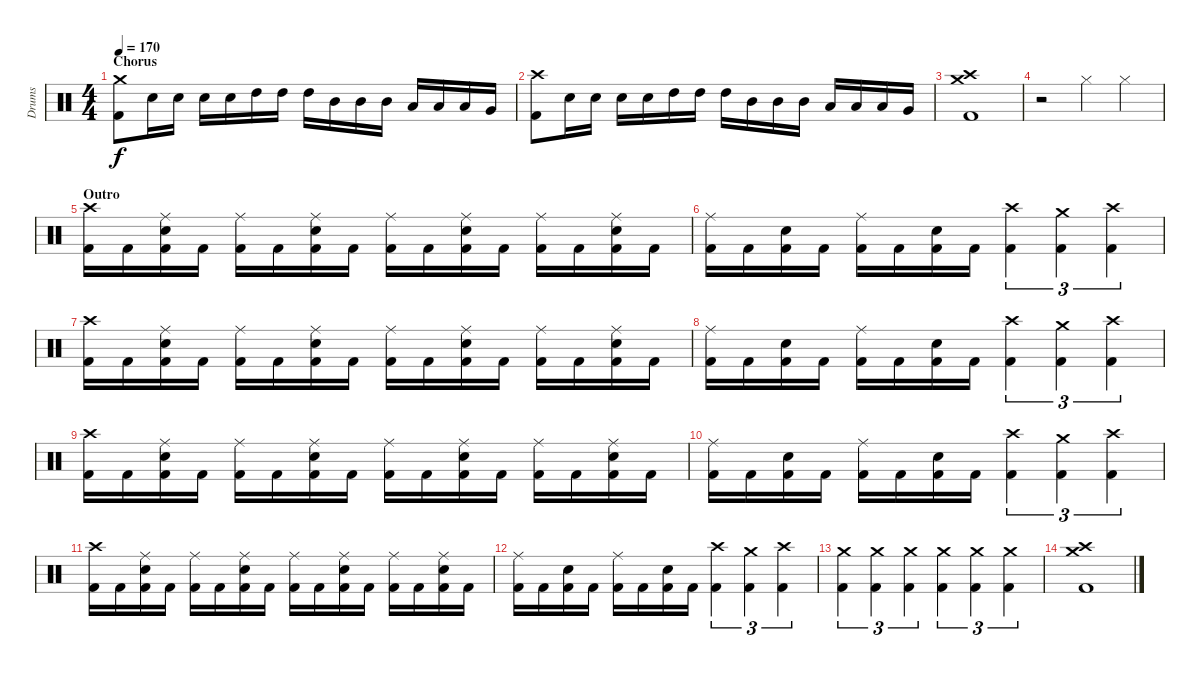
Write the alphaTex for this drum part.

\track ("Drums" "Drums") {instrument percussion}
\staff {score}
\articulation defaults
\ts (4 4)
\section ("" "Chorus")
\tempo 170
\clef neutral
\ks c
("Crash medium (hit)" "Kick (hit) 2").8{dy f} "Snare (hit) 2".16 "Snare (hit) 2".16 "Snare (hit) 2".16 "Snare (hit) 2".16 "High Tom (hit)".16 "High Tom (hit)".16 "High Tom (hit)".16 "Mid Tom (hit)".16 "Mid Tom (hit)".16 "Mid Tom (hit)".16 "Low Tom (hit)".16 "Low Tom (hit)".16 "Low Tom (hit)".16 "Very Low Tom (hit)".16 |
("Crash high (hit)" "Kick (hit) 2").8 "Snare (hit) 2".16 "Snare (hit) 2".16 "Snare (hit) 2".16 "Snare (hit) 2".16 "High Tom (hit)".16 "High Tom (hit)".16 "High Tom (hit)".16 "Mid Tom (hit)".16 "Mid Tom (hit)".16 "Mid Tom (hit)".16 "Low Tom (hit)".16 "Low Tom (hit)".16 "Low Tom (hit)".16 "Very Low Tom (hit)".16 |
("Crash high (hit)" "Crash medium (hit)" "Kick (hit) 2").1 |
r.2 "Hi-Hat (closed)".4 "Hi-Hat (closed)".4 |
\section ("" "Outro")
("Crash high (hit)" "Kick (hit) 2").16 "Kick (hit) 2".16 ("Ride (middle)" "Snare (hit) 2" "Kick (hit) 2").16 "Kick (hit) 2".16 ("Ride (middle)" "Kick (hit) 2").16 "Kick (hit) 2".16 ("Ride (middle)" "Snare (hit) 2" "Kick (hit) 2").16 "Kick (hit) 2".16 ("Ride (middle)" "Kick (hit) 2").16 "Kick (hit) 2".16 ("Ride (middle)" "Snare (hit) 2" "Kick (hit) 2").16 "Kick (hit) 2".16 ("Ride (middle)" "Kick (hit) 2").16 "Kick (hit) 2".16 ("Ride (middle)" "Snare (hit) 2" "Kick (hit) 2").16 "Kick (hit) 2".16 |
("Ride (middle)" "Kick (hit) 2").16 "Kick (hit) 2".16 ("Snare (hit) 2" "Kick (hit) 2").16 "Kick (hit) 2".16 ("Ride (middle)" "Kick (hit) 2").16 "Kick (hit) 2".16 ("Snare (hit) 2" "Kick (hit) 2").16 "Kick (hit) 2".16 ("Crash high (hit)" "Kick (hit) 2").4{tu (3 2)} ("Crash medium (hit)" "Kick (hit) 2").4{tu (3 2)} ("Crash high (hit)" "Kick (hit) 2").4{tu (3 2)} |
("Crash high (hit)" "Kick (hit) 2").16 "Kick (hit) 2".16 ("Ride (middle)" "Snare (hit) 2" "Kick (hit) 2").16 "Kick (hit) 2".16 ("Ride (middle)" "Kick (hit) 2").16 "Kick (hit) 2".16 ("Ride (middle)" "Snare (hit) 2" "Kick (hit) 2").16 "Kick (hit) 2".16 ("Ride (middle)" "Kick (hit) 2").16 "Kick (hit) 2".16 ("Ride (middle)" "Snare (hit) 2" "Kick (hit) 2").16 "Kick (hit) 2".16 ("Ride (middle)" "Kick (hit) 2").16 "Kick (hit) 2".16 ("Ride (middle)" "Snare (hit) 2" "Kick (hit) 2").16 "Kick (hit) 2".16 |
("Ride (middle)" "Kick (hit) 2").16 "Kick (hit) 2".16 ("Snare (hit) 2" "Kick (hit) 2").16 "Kick (hit) 2".16 ("Ride (middle)" "Kick (hit) 2").16 "Kick (hit) 2".16 ("Snare (hit) 2" "Kick (hit) 2").16 "Kick (hit) 2".16 ("Crash high (hit)" "Kick (hit) 2").4{tu (3 2)} ("Crash medium (hit)" "Kick (hit) 2").4{tu (3 2)} ("Crash high (hit)" "Kick (hit) 2").4{tu (3 2)} |
("Crash high (hit)" "Kick (hit) 2").16 "Kick (hit) 2".16 ("Ride (middle)" "Snare (hit) 2" "Kick (hit) 2").16 "Kick (hit) 2".16 ("Ride (middle)" "Kick (hit) 2").16 "Kick (hit) 2".16 ("Ride (middle)" "Snare (hit) 2" "Kick (hit) 2").16 "Kick (hit) 2".16 ("Ride (middle)" "Kick (hit) 2").16 "Kick (hit) 2".16 ("Ride (middle)" "Snare (hit) 2" "Kick (hit) 2").16 "Kick (hit) 2".16 ("Ride (middle)" "Kick (hit) 2").16 "Kick (hit) 2".16 ("Ride (middle)" "Snare (hit) 2" "Kick (hit) 2").16 "Kick (hit) 2".16 |
("Ride (middle)" "Kick (hit) 2").16 "Kick (hit) 2".16 ("Snare (hit) 2" "Kick (hit) 2").16 "Kick (hit) 2".16 ("Ride (middle)" "Kick (hit) 2").16 "Kick (hit) 2".16 ("Snare (hit) 2" "Kick (hit) 2").16 "Kick (hit) 2".16 ("Crash high (hit)" "Kick (hit) 2").4{tu (3 2)} ("Crash medium (hit)" "Kick (hit) 2").4{tu (3 2)} ("Crash high (hit)" "Kick (hit) 2").4{tu (3 2)} |
("Crash high (hit)" "Kick (hit) 2").16 "Kick (hit) 2".16 ("Ride (middle)" "Snare (hit) 2" "Kick (hit) 2").16 "Kick (hit) 2".16 ("Ride (middle)" "Kick (hit) 2").16 "Kick (hit) 2".16 ("Ride (middle)" "Snare (hit) 2" "Kick (hit) 2").16 "Kick (hit) 2".16 ("Ride (middle)" "Kick (hit) 2").16 "Kick (hit) 2".16 ("Ride (middle)" "Snare (hit) 2" "Kick (hit) 2").16 "Kick (hit) 2".16 ("Ride (middle)" "Kick (hit) 2").16 "Kick (hit) 2".16 ("Ride (middle)" "Snare (hit) 2" "Kick (hit) 2").16 "Kick (hit) 2".16 |
("Ride (middle)" "Kick (hit) 2").16 "Kick (hit) 2".16 ("Snare (hit) 2" "Kick (hit) 2").16 "Kick (hit) 2".16 ("Ride (middle)" "Kick (hit) 2").16 "Kick (hit) 2".16 ("Snare (hit) 2" "Kick (hit) 2").16 "Kick (hit) 2".16 ("Crash high (hit)" "Kick (hit) 2").4{tu (3 2)} ("Crash medium (hit)" "Kick (hit) 2").4{tu (3 2)} ("Crash high (hit)" "Kick (hit) 2").4{tu (3 2)} |
("Crash medium (hit)" "Kick (hit) 2").4{tu (3 2)} ("Crash medium (hit)" "Kick (hit) 2").4{tu (3 2)} ("Crash medium (hit)" "Kick (hit) 2").4{tu (3 2)} ("Crash medium (hit)" "Kick (hit) 2").4{tu (3 2)} ("Crash medium (hit)" "Kick (hit) 2").4{tu (3 2)} ("Crash medium (hit)" "Kick (hit) 2").4{tu (3 2)} |
("Crash medium (hit)" "Crash high (hit)" "Kick (hit) 2").1
